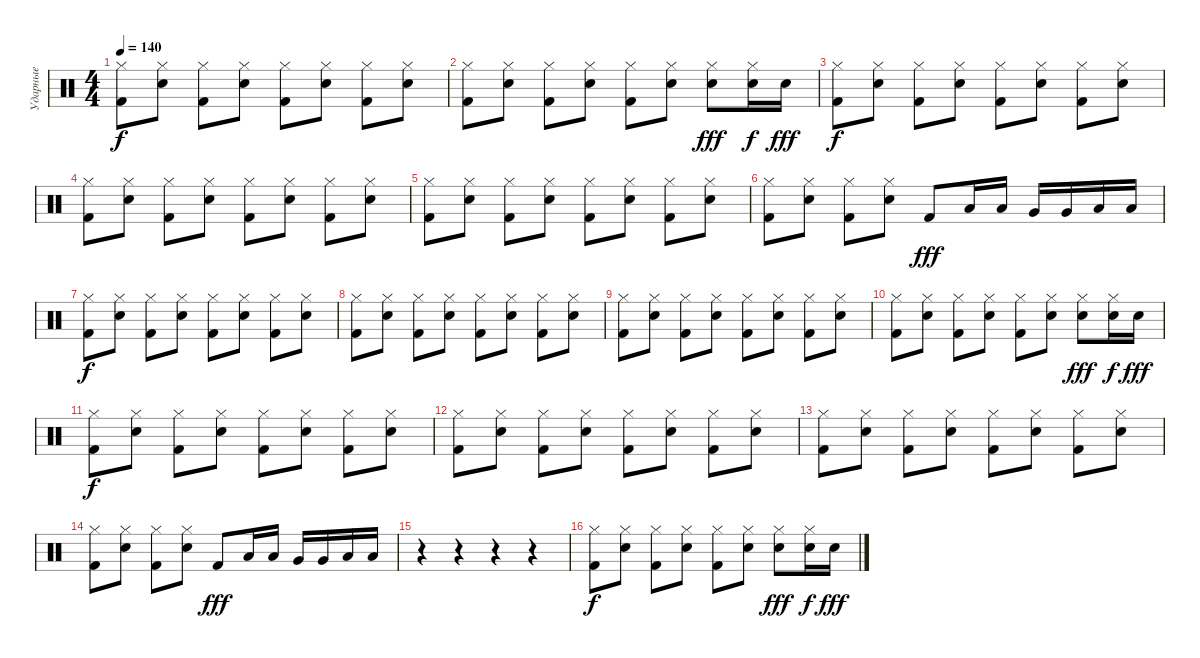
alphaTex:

\track ("Ударные" "Ударные") {instrument percussion}
\staff {score}
\articulation defaults
\ts (4 4)
\tempo 140
\clef neutral
\ks c
("Hi-Hat (closed)" "Kick (hit) 2").8{dy f} ("Hi-Hat (closed)" "Electric Snare (hit)").8 ("Hi-Hat (closed)" "Kick (hit) 2").8 ("Hi-Hat (closed)" "Electric Snare (hit)").8 ("Hi-Hat (closed)" "Kick (hit) 2").8 ("Hi-Hat (closed)" "Electric Snare (hit)").8 ("Hi-Hat (closed)" "Kick (hit) 2").8 ("Hi-Hat (closed)" "Electric Snare (hit)").8 |
("Hi-Hat (closed)" "Kick (hit) 2").8 ("Hi-Hat (closed)" "Electric Snare (hit)").8 ("Hi-Hat (closed)" "Kick (hit) 2").8 ("Hi-Hat (closed)" "Electric Snare (hit)").8 ("Hi-Hat (closed)" "Kick (hit) 2").8 ("Hi-Hat (closed)" "Electric Snare (hit)").8 ("Hi-Hat (closed)" "Electric Snare (hit)").8{dy fff} ("Hi-Hat (closed)" "Electric Snare (hit)").16{dy f} "Electric Snare (hit)".16{dy fff} |
("Hi-Hat (closed)" "Kick (hit) 2").8{dy f} ("Hi-Hat (closed)" "Electric Snare (hit)").8 ("Hi-Hat (closed)" "Kick (hit) 2").8 ("Hi-Hat (closed)" "Electric Snare (hit)").8 ("Hi-Hat (closed)" "Kick (hit) 2").8 ("Hi-Hat (closed)" "Electric Snare (hit)").8 ("Hi-Hat (closed)" "Kick (hit) 2").8 ("Hi-Hat (closed)" "Electric Snare (hit)").8 |
("Hi-Hat (closed)" "Kick (hit) 2").8 ("Hi-Hat (closed)" "Electric Snare (hit)").8 ("Hi-Hat (closed)" "Kick (hit) 2").8 ("Hi-Hat (closed)" "Electric Snare (hit)").8 ("Hi-Hat (closed)" "Kick (hit) 2").8 ("Hi-Hat (closed)" "Electric Snare (hit)").8 ("Hi-Hat (closed)" "Kick (hit) 2").8 ("Hi-Hat (closed)" "Electric Snare (hit)").8 |
("Hi-Hat (closed)" "Kick (hit) 2").8 ("Hi-Hat (closed)" "Electric Snare (hit)").8 ("Hi-Hat (closed)" "Kick (hit) 2").8 ("Hi-Hat (closed)" "Electric Snare (hit)").8 ("Hi-Hat (closed)" "Kick (hit) 2").8 ("Hi-Hat (closed)" "Electric Snare (hit)").8 ("Hi-Hat (closed)" "Kick (hit) 2").8 ("Hi-Hat (closed)" "Electric Snare (hit)").8 |
("Hi-Hat (closed)" "Kick (hit) 2").8 ("Hi-Hat (closed)" "Electric Snare (hit)").8 ("Hi-Hat (closed)" "Kick (hit) 2").8 ("Hi-Hat (closed)" "Electric Snare (hit)").8 "Kick (hit) 2".8{dy fff} "Low Tom (hit)".16 "Low Tom (hit)".16 "Very Low Tom (hit)".16 "Very Low Tom (hit)".16 "Low Floor Tom (hit)".16 "Low Floor Tom (hit)".16 |
("Hi-Hat (closed)" "Kick (hit) 2").8{dy f} ("Hi-Hat (closed)" "Electric Snare (hit)").8 ("Hi-Hat (closed)" "Kick (hit) 2").8 ("Hi-Hat (closed)" "Electric Snare (hit)").8 ("Hi-Hat (closed)" "Kick (hit) 2").8 ("Hi-Hat (closed)" "Electric Snare (hit)").8 ("Hi-Hat (closed)" "Kick (hit) 2").8 ("Hi-Hat (closed)" "Electric Snare (hit)").8 |
("Hi-Hat (closed)" "Kick (hit) 2").8 ("Hi-Hat (closed)" "Electric Snare (hit)").8 ("Hi-Hat (closed)" "Kick (hit) 2").8 ("Hi-Hat (closed)" "Electric Snare (hit)").8 ("Hi-Hat (closed)" "Kick (hit) 2").8 ("Hi-Hat (closed)" "Electric Snare (hit)").8 ("Hi-Hat (closed)" "Kick (hit) 2").8 ("Hi-Hat (closed)" "Electric Snare (hit)").8 |
("Hi-Hat (closed)" "Kick (hit) 2").8 ("Hi-Hat (closed)" "Electric Snare (hit)").8 ("Hi-Hat (closed)" "Kick (hit) 2").8 ("Hi-Hat (closed)" "Electric Snare (hit)").8 ("Hi-Hat (closed)" "Kick (hit) 2").8 ("Hi-Hat (closed)" "Electric Snare (hit)").8 ("Hi-Hat (closed)" "Kick (hit) 2").8 ("Hi-Hat (closed)" "Electric Snare (hit)").8 |
("Hi-Hat (closed)" "Kick (hit) 2").8 ("Hi-Hat (closed)" "Electric Snare (hit)").8 ("Hi-Hat (closed)" "Kick (hit) 2").8 ("Hi-Hat (closed)" "Electric Snare (hit)").8 ("Hi-Hat (closed)" "Kick (hit) 2").8 ("Hi-Hat (closed)" "Electric Snare (hit)").8 ("Hi-Hat (closed)" "Electric Snare (hit)").8{dy fff} ("Hi-Hat (closed)" "Electric Snare (hit)").16{dy f} "Electric Snare (hit)".16{dy fff} |
("Hi-Hat (closed)" "Kick (hit) 2").8{dy f} ("Hi-Hat (closed)" "Electric Snare (hit)").8 ("Hi-Hat (closed)" "Kick (hit) 2").8 ("Hi-Hat (closed)" "Electric Snare (hit)").8 ("Hi-Hat (closed)" "Kick (hit) 2").8 ("Hi-Hat (closed)" "Electric Snare (hit)").8 ("Hi-Hat (closed)" "Kick (hit) 2").8 ("Hi-Hat (closed)" "Electric Snare (hit)").8 |
("Hi-Hat (closed)" "Kick (hit) 2").8 ("Hi-Hat (closed)" "Electric Snare (hit)").8 ("Hi-Hat (closed)" "Kick (hit) 2").8 ("Hi-Hat (closed)" "Electric Snare (hit)").8 ("Hi-Hat (closed)" "Kick (hit) 2").8 ("Hi-Hat (closed)" "Electric Snare (hit)").8 ("Hi-Hat (closed)" "Kick (hit) 2").8 ("Hi-Hat (closed)" "Electric Snare (hit)").8 |
("Hi-Hat (closed)" "Kick (hit) 2").8 ("Hi-Hat (closed)" "Electric Snare (hit)").8 ("Hi-Hat (closed)" "Kick (hit) 2").8 ("Hi-Hat (closed)" "Electric Snare (hit)").8 ("Hi-Hat (closed)" "Kick (hit) 2").8 ("Hi-Hat (closed)" "Electric Snare (hit)").8 ("Hi-Hat (closed)" "Kick (hit) 2").8 ("Hi-Hat (closed)" "Electric Snare (hit)").8 |
("Hi-Hat (closed)" "Kick (hit) 2").8 ("Hi-Hat (closed)" "Electric Snare (hit)").8 ("Hi-Hat (closed)" "Kick (hit) 2").8 ("Hi-Hat (closed)" "Electric Snare (hit)").8 "Kick (hit) 2".8{dy fff} "Low Tom (hit)".16 "Low Tom (hit)".16 "Very Low Tom (hit)".16 "Very Low Tom (hit)".16 "Low Floor Tom (hit)".16 "Low Floor Tom (hit)".16 |
r.4 r.4 r.4 r.4 |
("Hi-Hat (closed)" "Kick (hit) 2").8{dy f} ("Hi-Hat (closed)" "Electric Snare (hit)").8 ("Hi-Hat (closed)" "Kick (hit) 2").8 ("Hi-Hat (closed)" "Electric Snare (hit)").8 ("Hi-Hat (closed)" "Kick (hit) 2").8 ("Hi-Hat (closed)" "Electric Snare (hit)").8 ("Hi-Hat (closed)" "Electric Snare (hit)").8{dy fff} ("Hi-Hat (closed)" "Electric Snare (hit)").16{dy f} "Electric Snare (hit)".16{dy fff}
